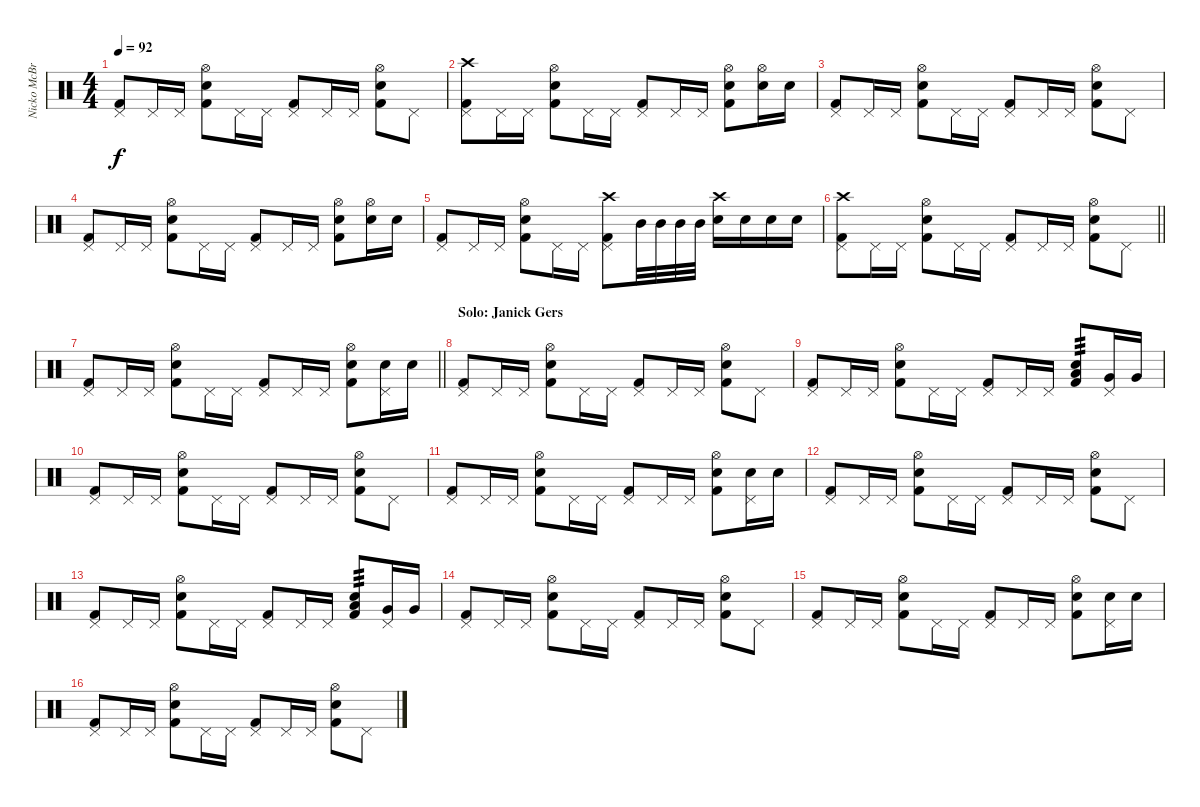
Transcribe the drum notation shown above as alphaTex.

\track ("Nicko McBrain" "Nicko McBr") {instrument percussion}
\staff {score}
\articulation defaults
\ts (4 4)
\tempo 92
\clef neutral
\ks c
("Pedal Hi-Hat (hit)" "Kick (hit) 2").8{dy f} "Pedal Hi-Hat (hit)".16 "Pedal Hi-Hat (hit)".16 ("Electric Snare (hit)" "Hi-Hat (open)" "Kick (hit) 2").8 "Pedal Hi-Hat (hit)".16 "Pedal Hi-Hat (hit)".16 ("Pedal Hi-Hat (hit)" "Kick (hit) 2").8 "Pedal Hi-Hat (hit)".16 "Pedal Hi-Hat (hit)".16 ("Electric Snare (hit)" "Hi-Hat (open)" "Kick (hit) 2").8 "Pedal Hi-Hat (hit)".8 |
("Crash high (hit)" "Pedal Hi-Hat (hit)" "Kick (hit) 2").8 "Pedal Hi-Hat (hit)".16 "Pedal Hi-Hat (hit)".16 ("Electric Snare (hit)" "Hi-Hat (open)" "Kick (hit) 2").8 "Pedal Hi-Hat (hit)".16 "Pedal Hi-Hat (hit)".16 ("Pedal Hi-Hat (hit)" "Kick (hit) 2").8 "Pedal Hi-Hat (hit)".16 "Pedal Hi-Hat (hit)".16 ("Electric Snare (hit)" "Hi-Hat (open)" "Kick (hit) 2").8 ("Hi-Hat (open)" "Electric Snare (hit)").16 "Electric Snare (hit)".16 |
("Pedal Hi-Hat (hit)" "Kick (hit) 2").8 "Pedal Hi-Hat (hit)".16 "Pedal Hi-Hat (hit)".16 ("Electric Snare (hit)" "Hi-Hat (open)" "Kick (hit) 2").8 "Pedal Hi-Hat (hit)".16 "Pedal Hi-Hat (hit)".16 ("Pedal Hi-Hat (hit)" "Kick (hit) 2").8 "Pedal Hi-Hat (hit)".16 "Pedal Hi-Hat (hit)".16 ("Electric Snare (hit)" "Hi-Hat (open)" "Kick (hit) 2").8 "Pedal Hi-Hat (hit)".8 |
("Pedal Hi-Hat (hit)" "Kick (hit) 2").8 "Pedal Hi-Hat (hit)".16 "Pedal Hi-Hat (hit)".16 ("Electric Snare (hit)" "Hi-Hat (open)" "Kick (hit) 2").8 "Pedal Hi-Hat (hit)".16 "Pedal Hi-Hat (hit)".16 ("Pedal Hi-Hat (hit)" "Kick (hit) 2").8 "Pedal Hi-Hat (hit)".16 "Pedal Hi-Hat (hit)".16 ("Electric Snare (hit)" "Hi-Hat (open)" "Kick (hit) 2").8 ("Hi-Hat (open)" "Electric Snare (hit)").16 "Electric Snare (hit)".16 |
("Pedal Hi-Hat (hit)" "Kick (hit) 2").8 "Pedal Hi-Hat (hit)".16 "Pedal Hi-Hat (hit)".16 ("Electric Snare (hit)" "Hi-Hat (open)" "Kick (hit) 2").8 "Pedal Hi-Hat (hit)".16 "Pedal Hi-Hat (hit)".16 ("Pedal Hi-Hat (hit)" "Crash high (hit)" "Kick (hit) 2").8 "Mid Tom (hit)".32 "Mid Tom (hit)".32 "Mid Tom (hit)".32 "Mid Tom (hit)".32 ("Electric Snare (hit)" "Crash high (hit)").16 "Electric Snare (hit)".16 "Electric Snare (hit)".16 "Electric Snare (hit)".16 |
\barLineRight lightlight
("Pedal Hi-Hat (hit)" "Crash high (hit)" "Kick (hit) 2").8 "Pedal Hi-Hat (hit)".16 "Pedal Hi-Hat (hit)".16 ("Electric Snare (hit)" "Hi-Hat (open)" "Kick (hit) 2").8 "Pedal Hi-Hat (hit)".16 "Pedal Hi-Hat (hit)".16 ("Pedal Hi-Hat (hit)" "Kick (hit) 2").8 "Pedal Hi-Hat (hit)".16 "Pedal Hi-Hat (hit)".16 ("Electric Snare (hit)" "Hi-Hat (open)" "Kick (hit) 2").8 "Pedal Hi-Hat (hit)".8 |
\barLineRight lightlight
("Pedal Hi-Hat (hit)" "Kick (hit) 2").8 "Pedal Hi-Hat (hit)".16 "Pedal Hi-Hat (hit)".16 ("Electric Snare (hit)" "Hi-Hat (open)" "Kick (hit) 2").8 "Pedal Hi-Hat (hit)".16 "Pedal Hi-Hat (hit)".16 ("Pedal Hi-Hat (hit)" "Kick (hit) 2").8 "Pedal Hi-Hat (hit)".16 "Pedal Hi-Hat (hit)".16 ("Electric Snare (hit)" "Hi-Hat (open)" "Kick (hit) 2").8 ("Pedal Hi-Hat (hit)" "Electric Snare (hit)").16 "Electric Snare (hit)".16 |
\section ("" "Solo: Janick Gers")
("Pedal Hi-Hat (hit)" "Kick (hit) 2").8 "Pedal Hi-Hat (hit)".16 "Pedal Hi-Hat (hit)".16 ("Electric Snare (hit)" "Hi-Hat (open)" "Kick (hit) 2").8 "Pedal Hi-Hat (hit)".16 "Pedal Hi-Hat (hit)".16 ("Pedal Hi-Hat (hit)" "Kick (hit) 2").8 "Pedal Hi-Hat (hit)".16 "Pedal Hi-Hat (hit)".16 ("Electric Snare (hit)" "Hi-Hat (open)" "Kick (hit) 2").8 "Pedal Hi-Hat (hit)".8 |
("Pedal Hi-Hat (hit)" "Kick (hit) 2").8 "Pedal Hi-Hat (hit)".16 "Pedal Hi-Hat (hit)".16 ("Electric Snare (hit)" "Hi-Hat (open)" "Kick (hit) 2").8 "Pedal Hi-Hat (hit)".16 "Pedal Hi-Hat (hit)".16 ("Pedal Hi-Hat (hit)" "Kick (hit) 2").8 "Pedal Hi-Hat (hit)".16 "Pedal Hi-Hat (hit)".16 ("Electric Snare (hit)" "Low Tom (hit)" "Kick (hit) 2").8{tp 3} ("Pedal Hi-Hat (hit)" "Very Low Tom (hit)").16 "Very Low Tom (hit)".16 |
("Pedal Hi-Hat (hit)" "Kick (hit) 2").8 "Pedal Hi-Hat (hit)".16 "Pedal Hi-Hat (hit)".16 ("Electric Snare (hit)" "Hi-Hat (open)" "Kick (hit) 2").8 "Pedal Hi-Hat (hit)".16 "Pedal Hi-Hat (hit)".16 ("Pedal Hi-Hat (hit)" "Kick (hit) 2").8 "Pedal Hi-Hat (hit)".16 "Pedal Hi-Hat (hit)".16 ("Electric Snare (hit)" "Hi-Hat (open)" "Kick (hit) 2").8 "Pedal Hi-Hat (hit)".8 |
("Pedal Hi-Hat (hit)" "Kick (hit) 2").8 "Pedal Hi-Hat (hit)".16 "Pedal Hi-Hat (hit)".16 ("Electric Snare (hit)" "Hi-Hat (open)" "Kick (hit) 2").8 "Pedal Hi-Hat (hit)".16 "Pedal Hi-Hat (hit)".16 ("Pedal Hi-Hat (hit)" "Kick (hit) 2").8 "Pedal Hi-Hat (hit)".16 "Pedal Hi-Hat (hit)".16 ("Electric Snare (hit)" "Hi-Hat (open)" "Kick (hit) 2").8 ("Pedal Hi-Hat (hit)" "Electric Snare (hit)").16 "Electric Snare (hit)".16 |
("Pedal Hi-Hat (hit)" "Kick (hit) 2").8 "Pedal Hi-Hat (hit)".16 "Pedal Hi-Hat (hit)".16 ("Electric Snare (hit)" "Hi-Hat (open)" "Kick (hit) 2").8 "Pedal Hi-Hat (hit)".16 "Pedal Hi-Hat (hit)".16 ("Pedal Hi-Hat (hit)" "Kick (hit) 2").8 "Pedal Hi-Hat (hit)".16 "Pedal Hi-Hat (hit)".16 ("Electric Snare (hit)" "Hi-Hat (open)" "Kick (hit) 2").8 "Pedal Hi-Hat (hit)".8 |
("Pedal Hi-Hat (hit)" "Kick (hit) 2").8 "Pedal Hi-Hat (hit)".16 "Pedal Hi-Hat (hit)".16 ("Electric Snare (hit)" "Hi-Hat (open)" "Kick (hit) 2").8 "Pedal Hi-Hat (hit)".16 "Pedal Hi-Hat (hit)".16 ("Pedal Hi-Hat (hit)" "Kick (hit) 2").8 "Pedal Hi-Hat (hit)".16 "Pedal Hi-Hat (hit)".16 ("Electric Snare (hit)" "Low Tom (hit)" "Kick (hit) 2").8{tp 3} ("Pedal Hi-Hat (hit)" "Very Low Tom (hit)").16 "Very Low Tom (hit)".16 |
("Pedal Hi-Hat (hit)" "Kick (hit) 2").8 "Pedal Hi-Hat (hit)".16 "Pedal Hi-Hat (hit)".16 ("Electric Snare (hit)" "Hi-Hat (open)" "Kick (hit) 2").8 "Pedal Hi-Hat (hit)".16 "Pedal Hi-Hat (hit)".16 ("Pedal Hi-Hat (hit)" "Kick (hit) 2").8 "Pedal Hi-Hat (hit)".16 "Pedal Hi-Hat (hit)".16 ("Electric Snare (hit)" "Hi-Hat (open)" "Kick (hit) 2").8 "Pedal Hi-Hat (hit)".8 |
("Pedal Hi-Hat (hit)" "Kick (hit) 2").8 "Pedal Hi-Hat (hit)".16 "Pedal Hi-Hat (hit)".16 ("Electric Snare (hit)" "Hi-Hat (open)" "Kick (hit) 2").8 "Pedal Hi-Hat (hit)".16 "Pedal Hi-Hat (hit)".16 ("Pedal Hi-Hat (hit)" "Kick (hit) 2").8 "Pedal Hi-Hat (hit)".16 "Pedal Hi-Hat (hit)".16 ("Electric Snare (hit)" "Hi-Hat (open)" "Kick (hit) 2").8 ("Pedal Hi-Hat (hit)" "Electric Snare (hit)").16 "Electric Snare (hit)".16 |
("Pedal Hi-Hat (hit)" "Kick (hit) 2").8 "Pedal Hi-Hat (hit)".16 "Pedal Hi-Hat (hit)".16 ("Electric Snare (hit)" "Hi-Hat (open)" "Kick (hit) 2").8 "Pedal Hi-Hat (hit)".16 "Pedal Hi-Hat (hit)".16 ("Pedal Hi-Hat (hit)" "Kick (hit) 2").8 "Pedal Hi-Hat (hit)".16 "Pedal Hi-Hat (hit)".16 ("Electric Snare (hit)" "Hi-Hat (open)" "Kick (hit) 2").8 "Pedal Hi-Hat (hit)".8
